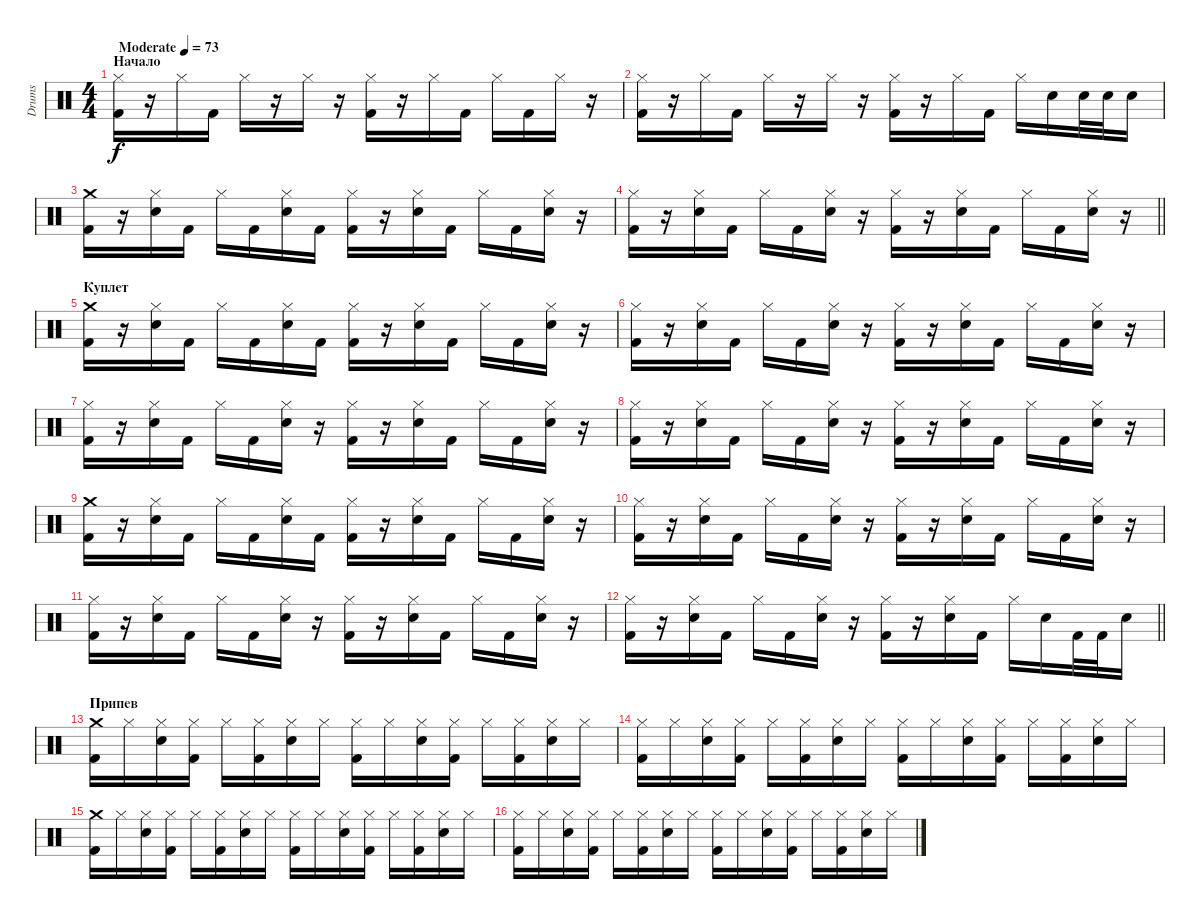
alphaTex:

\track ("Drums" "Drums") {instrument percussion}
\staff {score}
\articulation defaults
\ts (4 4)
\section ("" "Начало")
\tempo (73 "Moderate")
\clef neutral
\ks c
("Hi-Hat (closed)" "Kick (hit) 2").16{dy f} r.16 "Hi-Hat (closed)".16 "Kick (hit) 2".16 "Hi-Hat (closed)".16 r.16 "Hi-Hat (closed)".16 r.16 ("Hi-Hat (closed)" "Kick (hit) 2").16 r.16 "Hi-Hat (closed)".16 "Kick (hit) 2".16 "Hi-Hat (closed)".16 "Kick (hit) 2".16 "Hi-Hat (closed)".16 r.16 |
("Hi-Hat (closed)" "Kick (hit) 2").16 r.16 "Hi-Hat (closed)".16 "Kick (hit) 2".16 "Hi-Hat (closed)".16 r.16 "Hi-Hat (closed)".16 r.16 ("Hi-Hat (closed)" "Kick (hit) 2").16 r.16 "Hi-Hat (closed)".16 "Kick (hit) 2".16 "Hi-Hat (closed)".16 "Snare (hit) 2".16 "Snare (hit) 2".32 "Snare (hit) 2".32 "Snare (hit) 2".16 |
("Crash medium (hit)" "Kick (hit) 2").16 r.16 ("Hi-Hat (closed)" "Snare (hit) 2").16 "Kick (hit) 2".16 "Hi-Hat (closed)".16 "Kick (hit) 2".16 ("Hi-Hat (closed)" "Snare (hit) 2").16 "Kick (hit) 2".16 ("Hi-Hat (closed)" "Kick (hit) 2").16 r.16 ("Hi-Hat (closed)" "Snare (hit) 2").16 "Kick (hit) 2".16 "Hi-Hat (closed)".16 "Kick (hit) 2".16 ("Hi-Hat (closed)" "Snare (hit) 2").16 r.16 |
\barLineRight lightlight
("Hi-Hat (closed)" "Kick (hit) 2").16 r.16 ("Hi-Hat (closed)" "Snare (hit) 2").16 "Kick (hit) 2".16 "Hi-Hat (closed)".16 "Kick (hit) 2".16 ("Hi-Hat (closed)" "Snare (hit) 2").16 r.16 ("Hi-Hat (closed)" "Kick (hit) 2").16 r.16 ("Hi-Hat (closed)" "Snare (hit) 2").16 "Kick (hit) 2".16 "Hi-Hat (closed)".16 "Kick (hit) 2".16 ("Hi-Hat (closed)" "Snare (hit) 2").16 r.16 |
\section ("" "Куплет")
("Crash medium (hit)" "Kick (hit) 2").16 r.16 ("Hi-Hat (closed)" "Snare (hit) 2").16 "Kick (hit) 2".16 "Hi-Hat (closed)".16 "Kick (hit) 2".16 ("Hi-Hat (closed)" "Snare (hit) 2").16 "Kick (hit) 2".16 ("Hi-Hat (closed)" "Kick (hit) 2").16 r.16 ("Hi-Hat (closed)" "Snare (hit) 2").16 "Kick (hit) 2".16 "Hi-Hat (closed)".16 "Kick (hit) 2".16 ("Hi-Hat (closed)" "Snare (hit) 2").16 r.16 |
("Hi-Hat (closed)" "Kick (hit) 2").16 r.16 ("Hi-Hat (closed)" "Snare (hit) 2").16 "Kick (hit) 2".16 "Hi-Hat (closed)".16 "Kick (hit) 2".16 ("Hi-Hat (closed)" "Snare (hit) 2").16 r.16 ("Hi-Hat (closed)" "Kick (hit) 2").16 r.16 ("Hi-Hat (closed)" "Snare (hit) 2").16 "Kick (hit) 2".16 "Hi-Hat (closed)".16 "Kick (hit) 2".16 ("Hi-Hat (closed)" "Snare (hit) 2").16 r.16 |
("Hi-Hat (closed)" "Kick (hit) 2").16 r.16 ("Hi-Hat (closed)" "Snare (hit) 2").16 "Kick (hit) 2".16 "Hi-Hat (closed)".16 "Kick (hit) 2".16 ("Hi-Hat (closed)" "Snare (hit) 2").16 r.16 ("Hi-Hat (closed)" "Kick (hit) 2").16 r.16 ("Hi-Hat (closed)" "Snare (hit) 2").16 "Kick (hit) 2".16 "Hi-Hat (closed)".16 "Kick (hit) 2".16 ("Hi-Hat (closed)" "Snare (hit) 2").16 r.16 |
("Hi-Hat (closed)" "Kick (hit) 2").16 r.16 ("Hi-Hat (closed)" "Snare (hit) 2").16 "Kick (hit) 2".16 "Hi-Hat (closed)".16 "Kick (hit) 2".16 ("Hi-Hat (closed)" "Snare (hit) 2").16 r.16 ("Hi-Hat (closed)" "Kick (hit) 2").16 r.16 ("Hi-Hat (closed)" "Snare (hit) 2").16 "Kick (hit) 2".16 "Hi-Hat (closed)".16 "Kick (hit) 2".16 ("Hi-Hat (closed)" "Snare (hit) 2").16 r.16 |
("Crash medium (hit)" "Kick (hit) 2").16 r.16 ("Hi-Hat (closed)" "Snare (hit) 2").16 "Kick (hit) 2".16 "Hi-Hat (closed)".16 "Kick (hit) 2".16 ("Hi-Hat (closed)" "Snare (hit) 2").16 "Kick (hit) 2".16 ("Hi-Hat (closed)" "Kick (hit) 2").16 r.16 ("Hi-Hat (closed)" "Snare (hit) 2").16 "Kick (hit) 2".16 "Hi-Hat (closed)".16 "Kick (hit) 2".16 ("Hi-Hat (closed)" "Snare (hit) 2").16 r.16 |
("Hi-Hat (closed)" "Kick (hit) 2").16 r.16 ("Hi-Hat (closed)" "Snare (hit) 2").16 "Kick (hit) 2".16 "Hi-Hat (closed)".16 "Kick (hit) 2".16 ("Hi-Hat (closed)" "Snare (hit) 2").16 r.16 ("Hi-Hat (closed)" "Kick (hit) 2").16 r.16 ("Hi-Hat (closed)" "Snare (hit) 2").16 "Kick (hit) 2".16 "Hi-Hat (closed)".16 "Kick (hit) 2".16 ("Hi-Hat (closed)" "Snare (hit) 2").16 r.16 |
("Hi-Hat (closed)" "Kick (hit) 2").16 r.16 ("Hi-Hat (closed)" "Snare (hit) 2").16 "Kick (hit) 2".16 "Hi-Hat (closed)".16 "Kick (hit) 2".16 ("Hi-Hat (closed)" "Snare (hit) 2").16 r.16 ("Hi-Hat (closed)" "Kick (hit) 2").16 r.16 ("Hi-Hat (closed)" "Snare (hit) 2").16 "Kick (hit) 2".16 "Hi-Hat (closed)".16 "Kick (hit) 2".16 ("Hi-Hat (closed)" "Snare (hit) 2").16 r.16 |
\barLineRight lightlight
("Hi-Hat (closed)" "Kick (hit) 2").16 r.16 ("Hi-Hat (closed)" "Snare (hit) 2").16 "Kick (hit) 2".16 "Hi-Hat (closed)".16 "Kick (hit) 2".16 ("Hi-Hat (closed)" "Snare (hit) 2").16 r.16 ("Hi-Hat (closed)" "Kick (hit) 2").16 r.16 ("Hi-Hat (closed)" "Snare (hit) 2").16 "Kick (hit) 2".16 "Hi-Hat (closed)".16 "Snare (hit) 2".16 "Kick (hit) 2".32 "Kick (hit) 2".32 "Snare (hit) 2".16 |
\section ("" "Припев")
("Crash medium (hit)" "Kick (hit) 2").16 "Hi-Hat (closed)".16 ("Hi-Hat (closed)" "Snare (hit) 2").16 ("Hi-Hat (closed)" "Kick (hit) 2").16 "Hi-Hat (closed)".16 ("Hi-Hat (closed)" "Kick (hit) 2").16 ("Hi-Hat (closed)" "Snare (hit) 2").16 "Hi-Hat (closed)".16 ("Hi-Hat (closed)" "Kick (hit) 2").16 "Hi-Hat (closed)".16 ("Hi-Hat (closed)" "Snare (hit) 2").16 ("Hi-Hat (closed)" "Kick (hit) 2").16 "Hi-Hat (closed)".16 ("Hi-Hat (closed)" "Kick (hit) 2").16 ("Hi-Hat (closed)" "Snare (hit) 2").16 "Hi-Hat (closed)".16 |
("Hi-Hat (closed)" "Kick (hit) 2").16 "Hi-Hat (closed)".16 ("Hi-Hat (closed)" "Snare (hit) 2").16 ("Hi-Hat (closed)" "Kick (hit) 2").16 "Hi-Hat (closed)".16 ("Hi-Hat (closed)" "Kick (hit) 2").16 ("Hi-Hat (closed)" "Snare (hit) 2").16 "Hi-Hat (closed)".16 ("Hi-Hat (closed)" "Kick (hit) 2").16 "Hi-Hat (closed)".16 ("Hi-Hat (closed)" "Snare (hit) 2").16 ("Hi-Hat (closed)" "Kick (hit) 2").16 "Hi-Hat (closed)".16 ("Hi-Hat (closed)" "Kick (hit) 2").16 ("Hi-Hat (closed)" "Snare (hit) 2").16 "Hi-Hat (closed)".16 |
("Crash medium (hit)" "Kick (hit) 2").16 "Hi-Hat (closed)".16 ("Hi-Hat (closed)" "Snare (hit) 2").16 ("Hi-Hat (closed)" "Kick (hit) 2").16 "Hi-Hat (closed)".16 ("Hi-Hat (closed)" "Kick (hit) 2").16 ("Hi-Hat (closed)" "Snare (hit) 2").16 "Hi-Hat (closed)".16 ("Hi-Hat (closed)" "Kick (hit) 2").16 "Hi-Hat (closed)".16 ("Hi-Hat (closed)" "Snare (hit) 2").16 ("Hi-Hat (closed)" "Kick (hit) 2").16 "Hi-Hat (closed)".16 ("Hi-Hat (closed)" "Kick (hit) 2").16 ("Hi-Hat (closed)" "Snare (hit) 2").16 "Hi-Hat (closed)".16 |
("Hi-Hat (closed)" "Kick (hit) 2").16 "Hi-Hat (closed)".16 ("Hi-Hat (closed)" "Snare (hit) 2").16 ("Hi-Hat (closed)" "Kick (hit) 2").16 "Hi-Hat (closed)".16 ("Hi-Hat (closed)" "Kick (hit) 2").16 ("Hi-Hat (closed)" "Snare (hit) 2").16 "Hi-Hat (closed)".16 ("Hi-Hat (closed)" "Kick (hit) 2").16 "Hi-Hat (closed)".16 ("Hi-Hat (closed)" "Snare (hit) 2").16 ("Hi-Hat (closed)" "Kick (hit) 2").16 "Hi-Hat (closed)".16 ("Hi-Hat (closed)" "Kick (hit) 2").16 ("Hi-Hat (closed)" "Snare (hit) 2").16 "Hi-Hat (closed)".16
